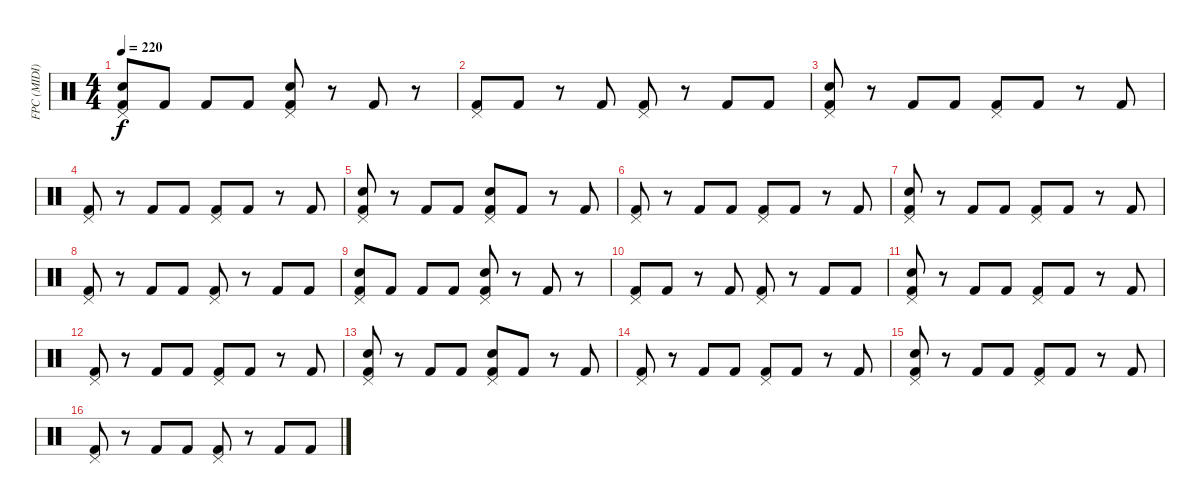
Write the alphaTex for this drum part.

\track ("FPC (MIDI)" "FPC (MIDI)") {instrument percussion}
\staff {score}
\articulation defaults
\ts (4 4)
\tempo 220
\clef neutral
\ks c
("Kick (hit) 2" "Snare (hit) 2" "Pedal Hi-Hat (hit)").8{dy f} "Kick (hit) 2".8 "Kick (hit) 2".8 "Kick (hit) 2".8 ("Snare (hit) 2" "Pedal Hi-Hat (hit)" "Kick (hit) 2").8 r.8 "Kick (hit) 2".8 r.8 |
("Pedal Hi-Hat (hit)" "Kick (hit) 2").8 "Kick (hit) 2".8 r.8 "Kick (hit) 2".8 ("Kick (hit) 2" "Pedal Hi-Hat (hit)").8 r.8 "Kick (hit) 2".8 "Kick (hit) 2".8 |
("Kick (hit) 2" "Snare (hit) 2" "Pedal Hi-Hat (hit)").8 r.8 "Kick (hit) 2".8 "Kick (hit) 2".8 ("Kick (hit) 2" "Pedal Hi-Hat (hit)").8 "Kick (hit) 2".8 r.8 "Kick (hit) 2".8 |
("Pedal Hi-Hat (hit)" "Kick (hit) 2").8 r.8 "Kick (hit) 2".8 "Kick (hit) 2".8 ("Kick (hit) 2" "Pedal Hi-Hat (hit)").8 "Kick (hit) 2".8 r.8 "Kick (hit) 2".8 |
("Kick (hit) 2" "Snare (hit) 2" "Pedal Hi-Hat (hit)").8 r.8 "Kick (hit) 2".8 "Kick (hit) 2".8 ("Snare (hit) 2" "Pedal Hi-Hat (hit)" "Kick (hit) 2").8 "Kick (hit) 2".8 r.8 "Kick (hit) 2".8 |
("Kick (hit) 2" "Pedal Hi-Hat (hit)").8 r.8 "Kick (hit) 2".8 "Kick (hit) 2".8 ("Kick (hit) 2" "Pedal Hi-Hat (hit)").8 "Kick (hit) 2".8 r.8 "Kick (hit) 2".8 |
("Kick (hit) 2" "Snare (hit) 2" "Pedal Hi-Hat (hit)").8 r.8 "Kick (hit) 2".8 "Kick (hit) 2".8 ("Pedal Hi-Hat (hit)" "Kick (hit) 2").8 "Kick (hit) 2".8 r.8 "Kick (hit) 2".8 |
("Pedal Hi-Hat (hit)" "Kick (hit) 2").8 r.8 "Kick (hit) 2".8 "Kick (hit) 2".8 ("Kick (hit) 2" "Pedal Hi-Hat (hit)").8 r.8 "Kick (hit) 2".8 "Kick (hit) 2".8 |
("Kick (hit) 2" "Snare (hit) 2" "Pedal Hi-Hat (hit)").8 "Kick (hit) 2".8 "Kick (hit) 2".8 "Kick (hit) 2".8 ("Snare (hit) 2" "Pedal Hi-Hat (hit)" "Kick (hit) 2").8 r.8 "Kick (hit) 2".8 r.8 |
("Pedal Hi-Hat (hit)" "Kick (hit) 2").8 "Kick (hit) 2".8 r.8 "Kick (hit) 2".8 ("Kick (hit) 2" "Pedal Hi-Hat (hit)").8 r.8 "Kick (hit) 2".8 "Kick (hit) 2".8 |
("Kick (hit) 2" "Snare (hit) 2" "Pedal Hi-Hat (hit)").8 r.8 "Kick (hit) 2".8 "Kick (hit) 2".8 ("Kick (hit) 2" "Pedal Hi-Hat (hit)").8 "Kick (hit) 2".8 r.8 "Kick (hit) 2".8 |
("Pedal Hi-Hat (hit)" "Kick (hit) 2").8 r.8 "Kick (hit) 2".8 "Kick (hit) 2".8 ("Kick (hit) 2" "Pedal Hi-Hat (hit)").8 "Kick (hit) 2".8 r.8 "Kick (hit) 2".8 |
("Kick (hit) 2" "Snare (hit) 2" "Pedal Hi-Hat (hit)").8 r.8 "Kick (hit) 2".8 "Kick (hit) 2".8 ("Snare (hit) 2" "Pedal Hi-Hat (hit)" "Kick (hit) 2").8 "Kick (hit) 2".8 r.8 "Kick (hit) 2".8 |
("Kick (hit) 2" "Pedal Hi-Hat (hit)").8 r.8 "Kick (hit) 2".8 "Kick (hit) 2".8 ("Kick (hit) 2" "Pedal Hi-Hat (hit)").8 "Kick (hit) 2".8 r.8 "Kick (hit) 2".8 |
("Kick (hit) 2" "Snare (hit) 2" "Pedal Hi-Hat (hit)").8 r.8 "Kick (hit) 2".8 "Kick (hit) 2".8 ("Pedal Hi-Hat (hit)" "Kick (hit) 2").8 "Kick (hit) 2".8 r.8 "Kick (hit) 2".8 |
("Pedal Hi-Hat (hit)" "Kick (hit) 2").8 r.8 "Kick (hit) 2".8 "Kick (hit) 2".8 ("Kick (hit) 2" "Pedal Hi-Hat (hit)").8 r.8 "Kick (hit) 2".8 "Kick (hit) 2".8
